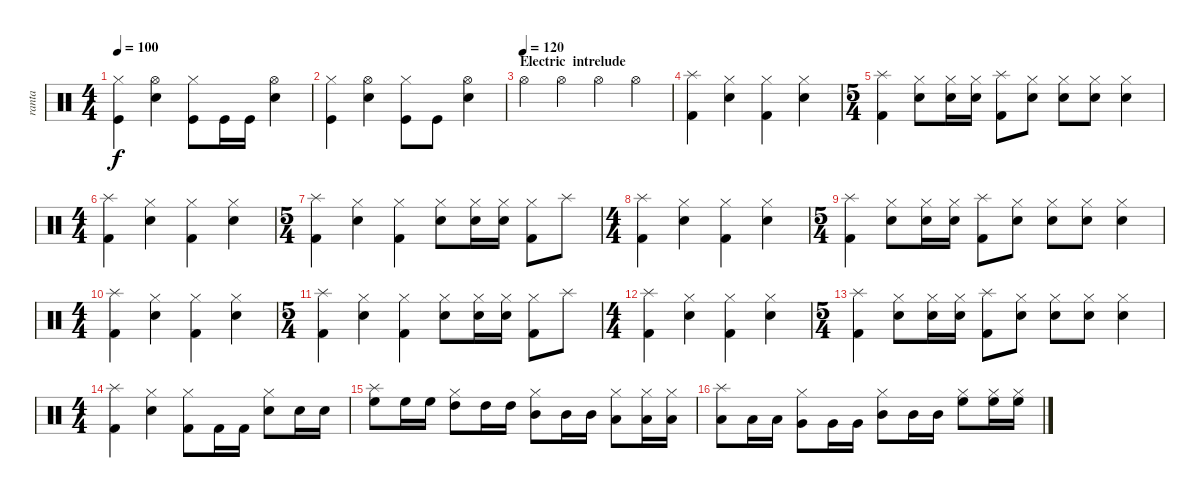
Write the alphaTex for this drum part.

\track ("ranta" "ranta") {instrument percussion}
\staff {score}
\articulation defaults
\ts (4 4)
\tempo 100
\clef neutral
\ks c
("Hi-Hat (closed)" "Kick (hit)").4{dy f} ("Hi-Hat (open)" "Snare (hit) 2").4 ("Hi-Hat (closed)" "Kick (hit)").8 "Kick (hit)".16 "Kick (hit)".16 ("Hi-Hat (open)" "Snare (hit) 2").4 |
("Hi-Hat (closed)" "Kick (hit)").4 ("Hi-Hat (open)" "Snare (hit) 2").4 ("Hi-Hat (closed)" "Kick (hit)").8 "Kick (hit)".8 ("Hi-Hat (open)" "Snare (hit) 2").4 |
\section ("" "Electric  intrelude")
\tempo (120)
"Hi-Hat (open)".4 "Hi-Hat (open)".4 "Hi-Hat (open)".4 "Hi-Hat (open)".4 |
("Splash (hit)" "Kick (hit) 2").4 ("Hi-Hat (closed)" "Snare (hit) 2").4 ("Hi-Hat (closed)" "Kick (hit) 2").4 ("Hi-Hat (closed)" "Snare (hit) 2").4 |
\ts (5 4)
("Splash (hit)" "Kick (hit) 2").4 ("Hi-Hat (closed)" "Snare (hit) 2").8 ("Hi-Hat (closed)" "Snare (hit) 2").16 ("Hi-Hat (closed)" "Snare (hit) 2").16 ("Splash (hit)" "Kick (hit) 2").8 ("Hi-Hat (closed)" "Snare (hit) 2").8 ("Hi-Hat (closed)" "Snare (hit) 2").8 ("Hi-Hat (closed)" "Snare (hit) 2").8 ("Hi-Hat (closed)" "Snare (hit) 2").4 |
\ts (4 4)
("Splash (hit)" "Kick (hit) 2").4 ("Hi-Hat (closed)" "Snare (hit) 2").4 ("Hi-Hat (closed)" "Kick (hit) 2").4 ("Hi-Hat (closed)" "Snare (hit) 2").4 |
\ts (5 4)
("Splash (hit)" "Kick (hit) 2").4 ("Hi-Hat (closed)" "Snare (hit) 2").4 ("Hi-Hat (closed)" "Kick (hit) 2").4 ("Hi-Hat (closed)" "Snare (hit) 2").8 ("Hi-Hat (closed)" "Snare (hit) 2").16 ("Hi-Hat (closed)" "Snare (hit) 2").16 ("Hi-Hat (closed)" "Kick (hit) 2").8 "Splash (hit)".8 |
\ts (4 4)
("Splash (hit)" "Kick (hit) 2").4 ("Hi-Hat (closed)" "Snare (hit) 2").4 ("Hi-Hat (closed)" "Kick (hit) 2").4 ("Hi-Hat (closed)" "Snare (hit) 2").4 |
\ts (5 4)
("Splash (hit)" "Kick (hit) 2").4 ("Hi-Hat (closed)" "Snare (hit) 2").8 ("Hi-Hat (closed)" "Snare (hit) 2").16 ("Hi-Hat (closed)" "Snare (hit) 2").16 ("Splash (hit)" "Kick (hit) 2").8 ("Hi-Hat (closed)" "Snare (hit) 2").8 ("Hi-Hat (closed)" "Snare (hit) 2").8 ("Hi-Hat (closed)" "Snare (hit) 2").8 ("Hi-Hat (closed)" "Snare (hit) 2").4 |
\ts (4 4)
("Splash (hit)" "Kick (hit) 2").4 ("Hi-Hat (closed)" "Snare (hit) 2").4 ("Hi-Hat (closed)" "Kick (hit) 2").4 ("Hi-Hat (closed)" "Snare (hit) 2").4 |
\ts (5 4)
("Splash (hit)" "Kick (hit) 2").4 ("Hi-Hat (closed)" "Snare (hit) 2").4 ("Hi-Hat (closed)" "Kick (hit) 2").4 ("Hi-Hat (closed)" "Snare (hit) 2").8 ("Hi-Hat (closed)" "Snare (hit) 2").16 ("Hi-Hat (closed)" "Snare (hit) 2").16 ("Hi-Hat (closed)" "Kick (hit) 2").8 "Splash (hit)".8 |
\ts (4 4)
("Splash (hit)" "Kick (hit) 2").4 ("Hi-Hat (closed)" "Snare (hit) 2").4 ("Hi-Hat (closed)" "Kick (hit) 2").4 ("Hi-Hat (closed)" "Snare (hit) 2").4 |
\ts (5 4)
("Splash (hit)" "Kick (hit) 2").4 ("Hi-Hat (closed)" "Snare (hit) 2").8 ("Hi-Hat (closed)" "Snare (hit) 2").16 ("Hi-Hat (closed)" "Snare (hit) 2").16 ("Splash (hit)" "Kick (hit) 2").8 ("Hi-Hat (closed)" "Snare (hit) 2").8 ("Hi-Hat (closed)" "Snare (hit) 2").8 ("Hi-Hat (closed)" "Snare (hit) 2").8 ("Hi-Hat (closed)" "Snare (hit) 2").4 |
\ts (4 4)
("Splash (hit)" "Kick (hit) 2").4 ("Hi-Hat (closed)" "Snare (hit) 2").4 ("Hi-Hat (closed)" "Kick (hit) 2").8 "Kick (hit) 2".16 "Kick (hit) 2".16 ("Hi-Hat (closed)" "Snare (hit) 2").8 "Snare (hit) 2".16 "Snare (hit) 2".16 |
("Splash (hit)" "High Floor Tom (hit)").8 "High Floor Tom (hit)".16 "High Floor Tom (hit)".16 ("Hi-Hat (closed)" "High Tom (hit)").8 "High Tom (hit)".16 "High Tom (hit)".16 ("Hi-Hat (closed)" "Mid Tom (hit)").8 "Mid Tom (hit)".16 "Mid Tom (hit)".16 ("Hi-Hat (closed)" "Low Tom (hit)").8 ("Hi-Hat (closed)" "Low Tom (hit)").16 ("Hi-Hat (closed)" "Low Tom (hit)").16 |
("Splash (hit)" "Low Floor Tom (hit)").8 "Low Floor Tom (hit)".16 "Low Floor Tom (hit)".16 ("Hi-Hat (closed)" "Very Low Tom (hit)").8 "Very Low Tom (hit)".16 "Very Low Tom (hit)".16 ("Hi-Hat (closed)" "Mid Tom (hit)").8 "Mid Tom (hit)".16 "Mid Tom (hit)".16 ("Hi-Hat (closed)" "High Floor Tom (hit)").8 ("Hi-Hat (closed)" "High Floor Tom (hit)").16 ("Hi-Hat (closed)" "High Floor Tom (hit)").16
